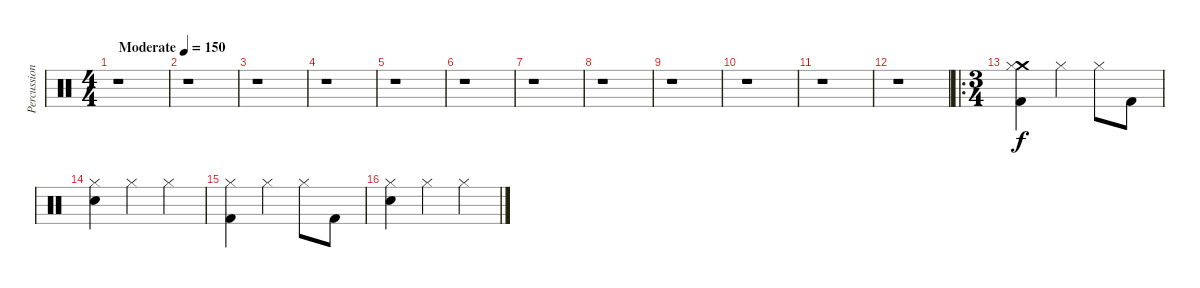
\track ("Percussion" "Percussion") {instrument percussion}
\staff {score}
\articulation defaults
\ts (4 4)
\tempo (150 "Moderate")
\clef neutral
\ks c
r.1{dy f} |
r.1 |
r.1 |
r.1 |
r.1 |
r.1 |
r.1 |
r.1 |
r.1 |
r.1 |
r.1 |
r.1 |
\ro
\ts (3 4)
("Crash medium (hit)" "Hi-Hat (closed)" "Kick (hit) 2").4 "Hi-Hat (closed)".4 "Hi-Hat (closed)".8 "Kick (hit) 2".8 |
("Hi-Hat (closed)" "Snare (hit) 2").4 "Hi-Hat (closed)".4 "Hi-Hat (closed)".4 |
("Hi-Hat (closed)" "Kick (hit) 2").4 "Hi-Hat (closed)".4 "Hi-Hat (closed)".8 "Kick (hit) 2".8 |
("Hi-Hat (closed)" "Snare (hit) 2").4 "Hi-Hat (closed)".4 "Hi-Hat (closed)".4
